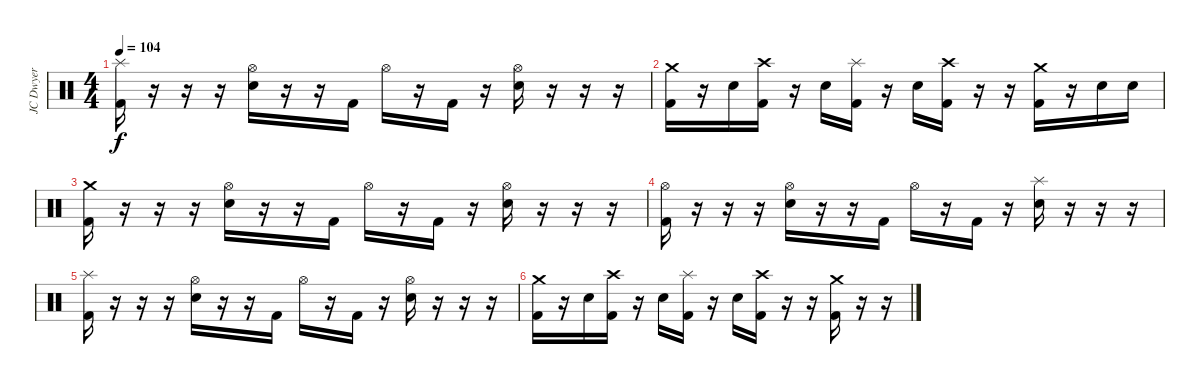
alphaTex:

\track ("JC Dwyer" "JC Dwyer") {instrument percussion}
\staff {score}
\articulation defaults
\ts (4 4)
\tempo 104
\clef neutral
\ks c
("Splash (hit)" "Kick (hit) 2").16{dy f} r.16 r.16 r.16 ("Hi-Hat (open)" "Electric Snare (hit)").16 r.16 r.16 "Kick (hit) 2".16 "Hi-Hat (open)".16 r.16 "Kick (hit) 2".16 r.16 ("Hi-Hat (open)" "Electric Snare (hit)").16 r.16 r.16 r.16 |
("Crash medium (hit)" "Kick (hit) 2").16 r.16 "Electric Snare (hit)".16 ("Crash high (hit)" "Kick (hit) 2").16 r.16 "Electric Snare (hit)".16 ("Splash (hit)" "Kick (hit) 2").16 r.16 "Electric Snare (hit)".16 ("Crash high (hit)" "Kick (hit) 2").16 r.16 r.16 ("Crash medium (hit)" "Kick (hit) 2").16 r.16 "Electric Snare (hit)".16 "Electric Snare (hit)".16 |
("Crash medium (hit)" "Kick (hit) 2").16 r.16 r.16 r.16 ("Hi-Hat (open)" "Electric Snare (hit)").16 r.16 r.16 "Kick (hit) 2".16 "Hi-Hat (open)".16 r.16 "Kick (hit) 2".16 r.16 ("Hi-Hat (open)" "Electric Snare (hit)").16 r.16 r.16 r.16 |
("Hi-Hat (open)" "Kick (hit) 2").16 r.16 r.16 r.16 ("Hi-Hat (open)" "Electric Snare (hit)").16 r.16 r.16 "Kick (hit) 2".16 "Hi-Hat (open)".16 r.16 "Kick (hit) 2".16 r.16 ("Splash (hit)" "Electric Snare (hit)").16 r.16 r.16 r.16 |
("Splash (hit)" "Kick (hit) 2").16 r.16 r.16 r.16 ("Hi-Hat (open)" "Electric Snare (hit)").16 r.16 r.16 "Kick (hit) 2".16 "Hi-Hat (open)".16 r.16 "Kick (hit) 2".16 r.16 ("Hi-Hat (open)" "Electric Snare (hit)").16 r.16 r.16 r.16 |
("Crash medium (hit)" "Kick (hit) 2").16 r.16 "Electric Snare (hit)".16 ("Crash high (hit)" "Kick (hit) 2").16 r.16 "Electric Snare (hit)".16 ("Splash (hit)" "Kick (hit) 2").16 r.16 "Electric Snare (hit)".16 ("Crash high (hit)" "Kick (hit) 2").16 r.16 r.16 ("Crash medium (hit)" "Kick (hit) 2").16 r.16 r.16
